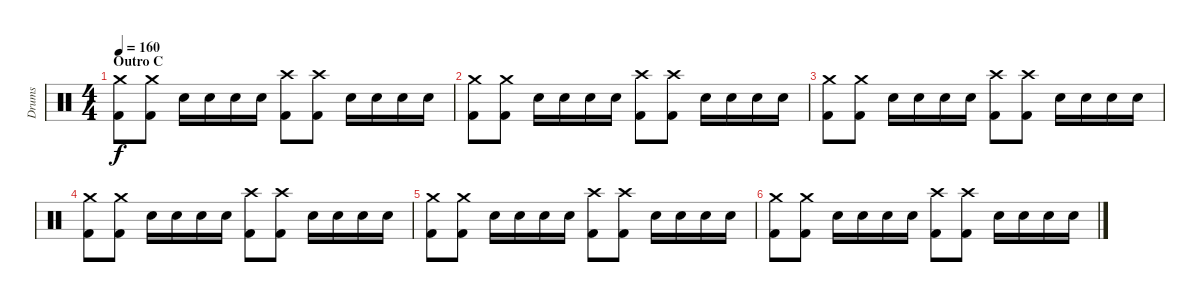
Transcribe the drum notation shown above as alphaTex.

\track ("Drums" "Drums") {instrument percussion}
\staff {score}
\articulation defaults
\ts (4 4)
\section ("" "Outro C")
\tempo 150
\tempo 160
\clef neutral
\ks c
("Crash medium (hit)" "Kick (hit) 2").8{dy f} ("Crash medium (hit)" "Kick (hit) 2").8 "Electric Snare (hit)".16 "Electric Snare (hit)".16 "Electric Snare (hit)".16 "Electric Snare (hit)".16 ("Crash high (hit)" "Kick (hit) 2").8 ("Crash high (hit)" "Kick (hit) 2").8 "Electric Snare (hit)".16 "Electric Snare (hit)".16 "Electric Snare (hit)".16 "Electric Snare (hit)".16 |
("Crash medium (hit)" "Kick (hit) 2").8 ("Crash medium (hit)" "Kick (hit) 2").8 "Electric Snare (hit)".16 "Electric Snare (hit)".16 "Electric Snare (hit)".16 "Electric Snare (hit)".16 ("Crash high (hit)" "Kick (hit) 2").8 ("Crash high (hit)" "Kick (hit) 2").8 "Electric Snare (hit)".16 "Electric Snare (hit)".16 "Electric Snare (hit)".16 "Electric Snare (hit)".16 |
("Crash medium (hit)" "Kick (hit) 2").8 ("Crash medium (hit)" "Kick (hit) 2").8 "Electric Snare (hit)".16 "Electric Snare (hit)".16 "Electric Snare (hit)".16 "Electric Snare (hit)".16 ("Crash high (hit)" "Kick (hit) 2").8 ("Crash high (hit)" "Kick (hit) 2").8 "Electric Snare (hit)".16 "Electric Snare (hit)".16 "Electric Snare (hit)".16 "Electric Snare (hit)".16 |
("Crash medium (hit)" "Kick (hit) 2").8 ("Crash medium (hit)" "Kick (hit) 2").8 "Electric Snare (hit)".16 "Electric Snare (hit)".16 "Electric Snare (hit)".16 "Electric Snare (hit)".16 ("Crash high (hit)" "Kick (hit) 2").8 ("Crash high (hit)" "Kick (hit) 2").8 "Electric Snare (hit)".16 "Electric Snare (hit)".16 "Electric Snare (hit)".16 "Electric Snare (hit)".16 |
("Crash medium (hit)" "Kick (hit) 2").8 ("Crash medium (hit)" "Kick (hit) 2").8 "Electric Snare (hit)".16 "Electric Snare (hit)".16 "Electric Snare (hit)".16 "Electric Snare (hit)".16 ("Crash high (hit)" "Kick (hit) 2").8 ("Crash high (hit)" "Kick (hit) 2").8 "Electric Snare (hit)".16 "Electric Snare (hit)".16 "Electric Snare (hit)".16 "Electric Snare (hit)".16 |
("Crash medium (hit)" "Kick (hit) 2").8 ("Crash medium (hit)" "Kick (hit) 2").8 "Electric Snare (hit)".16 "Electric Snare (hit)".16 "Electric Snare (hit)".16 "Electric Snare (hit)".16 ("Crash high (hit)" "Kick (hit) 2").8 ("Crash high (hit)" "Kick (hit) 2").8 "Electric Snare (hit)".16 "Electric Snare (hit)".16 "Electric Snare (hit)".16 "Electric Snare (hit)".16
